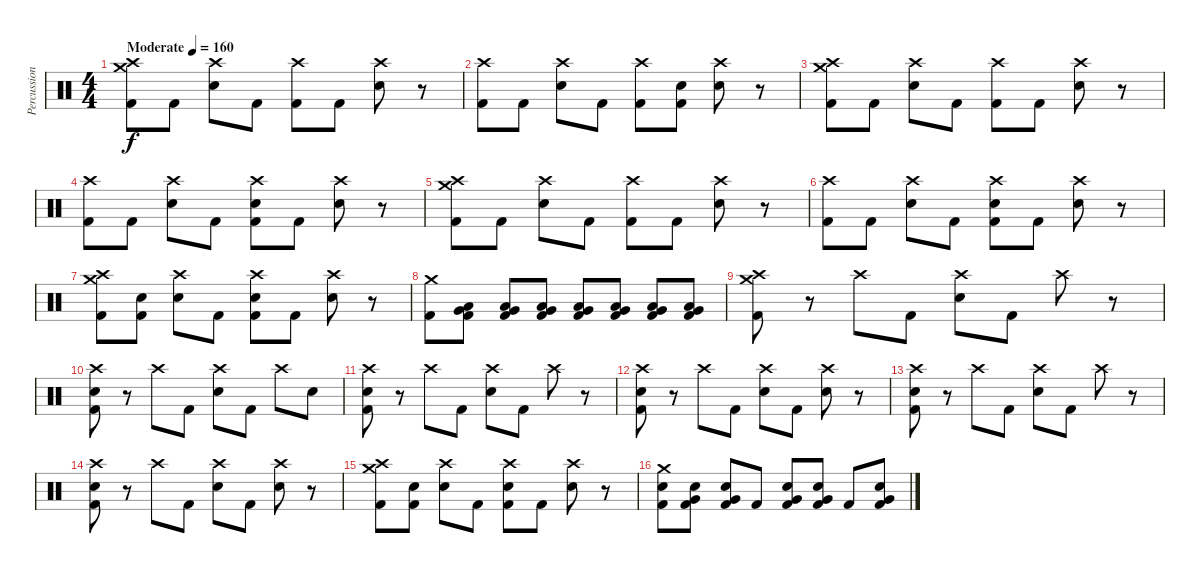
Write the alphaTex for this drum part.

\track ("Percussion" "Percussion") {instrument percussion}
\staff {score}
\articulation defaults
\ts (4 4)
\tempo (160 "Moderate")
\clef neutral
\ks c
("Crash medium (hit)" "Crash high (hit)" "Kick (hit) 2").8{dy f} "Kick (hit) 2".8 ("Crash high (hit)" "Electric Snare (hit)").8 "Kick (hit) 2".8 ("Crash high (hit)" "Kick (hit) 2").8 "Kick (hit) 2".8 ("Crash high (hit)" "Electric Snare (hit)").8 r.8 |
("Crash high (hit)" "Kick (hit) 2").8 "Kick (hit) 2".8 ("Crash high (hit)" "Electric Snare (hit)").8 "Kick (hit) 2".8 ("Crash high (hit)" "Kick (hit) 2").8 ("Electric Snare (hit)" "Kick (hit) 2").8 ("Crash high (hit)" "Electric Snare (hit)").8 r.8 |
("Crash medium (hit)" "Crash high (hit)" "Kick (hit) 2").8 "Kick (hit) 2".8 ("Crash high (hit)" "Electric Snare (hit)").8 "Kick (hit) 2".8 ("Crash high (hit)" "Kick (hit) 2").8 "Kick (hit) 2".8 ("Crash high (hit)" "Electric Snare (hit)").8 r.8 |
("Crash high (hit)" "Kick (hit) 2").8 "Kick (hit) 2".8 ("Crash high (hit)" "Electric Snare (hit)").8 "Kick (hit) 2".8 ("Crash high (hit)" "Electric Snare (hit)" "Kick (hit) 2").8 "Kick (hit) 2".8 ("Crash high (hit)" "Electric Snare (hit)").8 r.8 |
("Crash medium (hit)" "Crash high (hit)" "Kick (hit) 2").8 "Kick (hit) 2".8 ("Crash high (hit)" "Electric Snare (hit)").8 "Kick (hit) 2".8 ("Crash high (hit)" "Kick (hit) 2").8 "Kick (hit) 2".8 ("Crash high (hit)" "Electric Snare (hit)").8 r.8 |
("Crash high (hit)" "Kick (hit) 2").8 "Kick (hit) 2".8 ("Crash high (hit)" "Electric Snare (hit)").8 "Kick (hit) 2".8 ("Crash high (hit)" "Electric Snare (hit)" "Kick (hit) 2").8 "Kick (hit) 2".8 ("Crash high (hit)" "Electric Snare (hit)").8 r.8 |
("Crash medium (hit)" "Crash high (hit)" "Kick (hit) 2").8 ("Electric Snare (hit)" "Kick (hit) 2").8 ("Crash high (hit)" "Electric Snare (hit)").8 "Kick (hit) 2".8 ("Crash high (hit)" "Electric Snare (hit)" "Kick (hit) 2").8 "Kick (hit) 2".8 ("Crash high (hit)" "Electric Snare (hit)").8 r.8 |
("Crash medium (hit)" "Kick (hit) 2").8 ("Low Floor Tom (hit)" "Very Low Tom (hit)" "Kick (hit) 2").8 ("Low Floor Tom (hit)" "Very Low Tom (hit)" "Kick (hit) 2").8 ("Low Floor Tom (hit)" "Very Low Tom (hit)" "Kick (hit) 2").8 ("Low Floor Tom (hit)" "Very Low Tom (hit)" "Kick (hit) 2").8 ("Low Floor Tom (hit)" "Very Low Tom (hit)" "Kick (hit) 2").8 ("Low Floor Tom (hit)" "Very Low Tom (hit)" "Kick (hit) 2").8 ("Low Floor Tom (hit)" "Very Low Tom (hit)" "Kick (hit) 2").8 |
("Crash medium (hit)" "Crash high (hit)" "Kick (hit) 2").8 r.8 "Crash high (hit)".8 "Kick (hit) 2".8 ("Crash high (hit)" "Electric Snare (hit)").8 "Kick (hit) 2".8 "Crash high (hit)".8 r.8 |
("Crash high (hit)" "Electric Snare (hit)" "Kick (hit) 2").8 r.8 "Crash high (hit)".8 "Kick (hit) 2".8 ("Crash high (hit)" "Electric Snare (hit)").8 "Kick (hit) 2".8 "Crash high (hit)".8 "Electric Snare (hit)".8 |
("Crash high (hit)" "Electric Snare (hit)" "Kick (hit) 2").8 r.8 "Crash high (hit)".8 "Kick (hit) 2".8 ("Crash high (hit)" "Electric Snare (hit)").8 "Kick (hit) 2".8 "Crash high (hit)".8 r.8 |
("Crash high (hit)" "Electric Snare (hit)" "Kick (hit) 2").8 r.8 "Crash high (hit)".8 "Kick (hit) 2".8 ("Crash high (hit)" "Electric Snare (hit)").8 "Kick (hit) 2".8 ("Crash high (hit)" "Electric Snare (hit)").8 r.8 |
("Crash high (hit)" "Electric Snare (hit)" "Kick (hit) 2").8 r.8 "Crash high (hit)".8 "Kick (hit) 2".8 ("Crash high (hit)" "Electric Snare (hit)").8 "Kick (hit) 2".8 "Crash high (hit)".8 r.8 |
("Crash high (hit)" "Electric Snare (hit)" "Kick (hit) 2").8 r.8 "Crash high (hit)".8 "Kick (hit) 2".8 ("Crash high (hit)" "Electric Snare (hit)").8 "Kick (hit) 2".8 ("Crash high (hit)" "Electric Snare (hit)").8 r.8 |
("Crash medium (hit)" "Crash high (hit)" "Kick (hit) 2").8 ("Electric Snare (hit)" "Kick (hit) 2").8 ("Crash high (hit)" "Electric Snare (hit)").8 "Kick (hit) 2".8 ("Crash high (hit)" "Electric Snare (hit)" "Kick (hit) 2").8 "Kick (hit) 2".8 ("Crash high (hit)" "Electric Snare (hit)").8 r.8 |
("Crash medium (hit)" "Electric Snare (hit)" "Kick (hit) 2").8 ("Very Low Tom (hit)" "Electric Snare (hit)" "Kick (hit) 2").8 ("Very Low Tom (hit)" "Electric Snare (hit)" "Kick (hit) 2").8 "Kick (hit) 2".8 ("Very Low Tom (hit)" "Electric Snare (hit)" "Kick (hit) 2").8 ("Very Low Tom (hit)" "Electric Snare (hit)" "Kick (hit) 2").8 "Kick (hit) 2".8 ("Very Low Tom (hit)" "Electric Snare (hit)" "Kick (hit) 2").8
